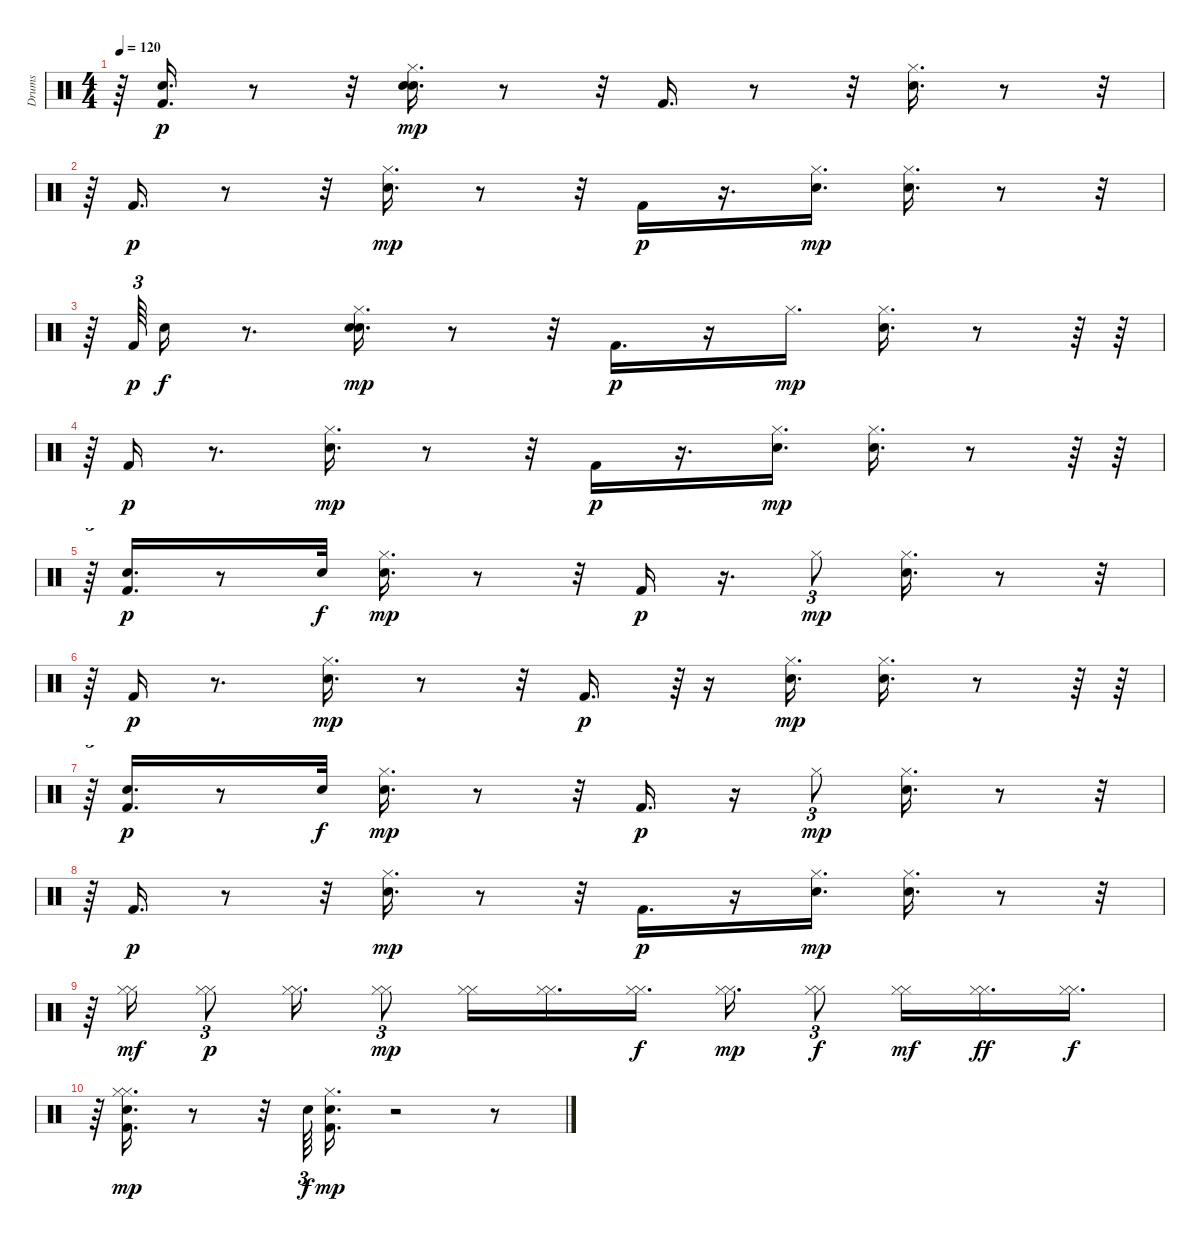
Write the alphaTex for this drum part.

\track ("Drums" "Drums") {instrument percussion}
\staff {score}
\articulation defaults
\ts (4 4)
\tempo 120
\clef neutral
\ks c
r.64{dy mp} ("Kick (hit) 2" "Hand Clap (hit)").16{d dy p} r.8 r.32 ("Hand Clap (hit)" "Snare (hit) 2" "Hi-Hat (closed)").16{d dy mp} r.8 r.32 "Kick (hit) 2".16{d} r.8 r.32 ("Hi-Hat (closed)" "Snare (hit) 2").16{d} r.8 r.32 |
r.64 "Kick (hit) 2".16{d dy p} r.8 r.32 ("Snare (hit) 2" "Hi-Hat (closed)").16{d dy mp} r.8 r.32 "Kick (hit) 2".16{dy p} r.16{d} ("Snare (hit) 2" "Hi-Hat (closed)").16{d dy mp} ("Snare (hit) 2" "Hi-Hat (closed)").16{d} r.8 r.32 |
r.64 "Kick (hit) 2".64{tu (3 2) dy p} "Hand Clap (hit)".16{dy f} r.8{d} ("Hi-Hat (closed)" "Snare (hit) 2" "Hand Clap (hit)").16{d dy mp} r.8 r.32 "Kick (hit) 2".16{d dy p} r.16 "Hi-Hat (closed)".16{d dy mp} ("Snare (hit) 2" "Hi-Hat (closed)").16{d} r.8 r.64 r.64 |
r.64{tu (5 4)} "Kick (hit) 2".16{dy p} r.8{d} ("Hi-Hat (closed)" "Snare (hit) 2").16{d dy mp} r.8 r.32 "Kick (hit) 2".16{dy p} r.16{d} ("Snare (hit) 2" "Hi-Hat (closed)").16{d dy mp} ("Snare (hit) 2" "Hi-Hat (closed)").16{d} r.8 r.64 r.64 |
r.64{tu (5 4)} ("Kick (hit) 2" "Hand Clap (hit)").16{d dy p} r.8 "Hand Clap (hit)".32{dy f} ("Snare (hit) 2" "Hi-Hat (closed)").16{d dy mp} r.8 r.32 "Kick (hit) 2".16{dy p} r.16{d} "Hi-Hat (closed)".8{tu (3 2) dy mp} ("Hi-Hat (closed)" "Snare (hit) 2").16{d} r.8 r.32 |
r.64 "Kick (hit) 2".16{dy p} r.8{d} ("Snare (hit) 2" "Hi-Hat (closed)").16{d dy mp} r.8 r.32 "Kick (hit) 2".16{d dy p} r.64{tu (3 2)} r.16 ("Snare (hit) 2" "Hi-Hat (closed)").16{d dy mp} ("Snare (hit) 2" "Hi-Hat (closed)").16{d} r.8 r.64 r.64 |
r.64{tu (5 4)} ("Hand Clap (hit)" "Kick (hit) 2").16{d dy p} r.8 "Hand Clap (hit)".32{dy f} ("Hi-Hat (closed)" "Snare (hit) 2").16{d dy mp} r.8 r.32 "Kick (hit) 2".16{d dy p} r.16 "Hi-Hat (closed)".8{tu (3 2) dy mp} ("Hi-Hat (closed)" "Snare (hit) 2").16{d} r.8 r.32 |
r.64 "Kick (hit) 2".16{d dy p} r.8 r.32 ("Hi-Hat (closed)" "Snare (hit) 2").16{d dy mp} r.8 r.32 "Kick (hit) 2".16{d dy p} r.16 ("Hi-Hat (closed)" "Snare (hit) 2").16{d dy mp} ("Snare (hit) 2" "Hi-Hat (closed)").16{d} r.8 r.32 |
r.64 ("Hi-Hat (closed)" "Hi-Hat (closed)").16{dy mf} ("Hi-Hat (closed)" "Hi-Hat (closed)").8{tu (3 2) dy p} ("Hi-Hat (closed)" "Hi-Hat (closed)").16{d} ("Hi-Hat (closed)" "Hi-Hat (closed)").8{tu (3 2) dy mp} ("Hi-Hat (closed)" "Hi-Hat (closed)").16 ("Hi-Hat (closed)" "Hi-Hat (closed)").16{d} ("Hi-Hat (closed)" "Hi-Hat (closed)").16{d dy f} ("Hi-Hat (closed)" "Hi-Hat (closed)").16{d dy mp} ("Hi-Hat (closed)" "Hi-Hat (closed)").8{tu (3 2) dy f} ("Hi-Hat (closed)" "Hi-Hat (closed)").16{dy mf} ("Hi-Hat (closed)" "Hi-Hat (closed)").16{d dy ff} ("Hi-Hat (closed)" "Hi-Hat (closed)").16{d dy f} |
r.64 ("Kick (hit) 2" "Hi-Hat (closed)" "Hi-Hat (closed)" "Hand Clap (hit)").16{d dy mp} r.8 r.32 "Hand Clap (hit)".64{tu (3 2) dy f} ("Kick (hit) 2" "Hi-Hat (closed)" "Snare (hit) 2").16{d dy mp} r.2 r.8
